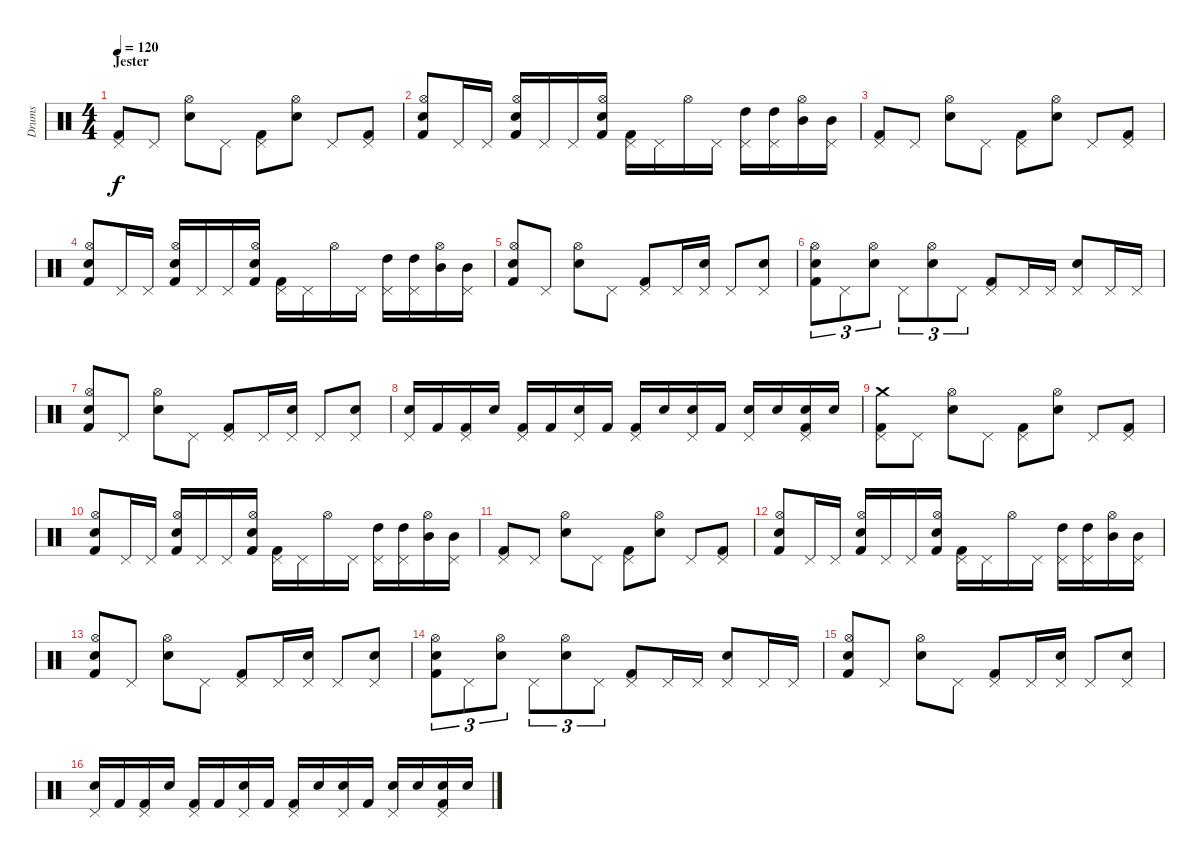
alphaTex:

\track ("Drums" "Drums") {instrument percussion}
\staff {score}
\articulation defaults
\ts (4 4)
\section ("" "Jester")
\tempo 120
\clef neutral
\ks c
("Pedal Hi-Hat (hit)" "Kick (hit) 2").8{dy f} "Pedal Hi-Hat (hit)".8 ("Hi-Hat (open)" "Electric Snare (hit)").8 "Pedal Hi-Hat (hit)".8 ("Pedal Hi-Hat (hit)" "Kick (hit) 2").8 ("Hi-Hat (open)" "Electric Snare (hit)").8 "Pedal Hi-Hat (hit)".8 ("Pedal Hi-Hat (hit)" "Kick (hit) 2").8 |
("Hi-Hat (open)" "Electric Snare (hit)" "Kick (hit) 2").8 "Pedal Hi-Hat (hit)".16 "Pedal Hi-Hat (hit)".16 ("Hi-Hat (open)" "Electric Snare (hit)" "Kick (hit) 2").16 "Pedal Hi-Hat (hit)".16 "Pedal Hi-Hat (hit)".16 ("Hi-Hat (open)" "Electric Snare (hit)" "Kick (hit) 2").16 ("Pedal Hi-Hat (hit)" "Kick (hit) 2").16 "Pedal Hi-Hat (hit)".16 "Hi-Hat (open)".16 "Pedal Hi-Hat (hit)".16 ("Pedal Hi-Hat (hit)" "High Tom (hit)").16 ("Pedal Hi-Hat (hit)" "High Tom (hit)").16 ("Hi-Hat (open)" "Mid Tom (hit)").16 ("Pedal Hi-Hat (hit)" "Mid Tom (hit)").16 |
("Pedal Hi-Hat (hit)" "Kick (hit) 2").8 "Pedal Hi-Hat (hit)".8 ("Hi-Hat (open)" "Electric Snare (hit)").8 "Pedal Hi-Hat (hit)".8 ("Pedal Hi-Hat (hit)" "Kick (hit) 2").8 ("Hi-Hat (open)" "Electric Snare (hit)").8 "Pedal Hi-Hat (hit)".8 ("Pedal Hi-Hat (hit)" "Kick (hit) 2").8 |
("Hi-Hat (open)" "Electric Snare (hit)" "Kick (hit) 2").8 "Pedal Hi-Hat (hit)".16 "Pedal Hi-Hat (hit)".16 ("Hi-Hat (open)" "Electric Snare (hit)" "Kick (hit) 2").16 "Pedal Hi-Hat (hit)".16 "Pedal Hi-Hat (hit)".16 ("Hi-Hat (open)" "Electric Snare (hit)" "Kick (hit) 2").16 ("Pedal Hi-Hat (hit)" "Kick (hit) 2").16 "Pedal Hi-Hat (hit)".16 "Hi-Hat (open)".16 "Pedal Hi-Hat (hit)".16 ("Pedal Hi-Hat (hit)" "High Tom (hit)").16 ("Pedal Hi-Hat (hit)" "High Tom (hit)").16 ("Hi-Hat (open)" "Mid Tom (hit)").16 ("Pedal Hi-Hat (hit)" "Mid Tom (hit)").16 |
("Hi-Hat (open)" "Electric Snare (hit)" "Kick (hit) 2").8 "Pedal Hi-Hat (hit)".8 ("Hi-Hat (open)" "Electric Snare (hit)").8 "Pedal Hi-Hat (hit)".8 ("Pedal Hi-Hat (hit)" "Kick (hit) 2").8 "Pedal Hi-Hat (hit)".16 ("Pedal Hi-Hat (hit)" "Electric Snare (hit)").16 "Pedal Hi-Hat (hit)".8 ("Pedal Hi-Hat (hit)" "Electric Snare (hit)").8 |
("Hi-Hat (open)" "Electric Snare (hit)" "Kick (hit) 2").8{tu (3 2)} "Pedal Hi-Hat (hit)".8{tu (3 2)} ("Hi-Hat (open)" "Electric Snare (hit)").8{tu (3 2)} "Pedal Hi-Hat (hit)".8{tu (3 2)} ("Hi-Hat (open)" "Electric Snare (hit)").8{tu (3 2)} "Pedal Hi-Hat (hit)".8{tu (3 2)} ("Pedal Hi-Hat (hit)" "Kick (hit) 2").8 "Pedal Hi-Hat (hit)".16 "Pedal Hi-Hat (hit)".16 ("Pedal Hi-Hat (hit)" "Electric Snare (hit)").8 "Pedal Hi-Hat (hit)".16 "Pedal Hi-Hat (hit)".16 |
("Hi-Hat (open)" "Electric Snare (hit)" "Kick (hit) 2").8 "Pedal Hi-Hat (hit)".8 ("Hi-Hat (open)" "Electric Snare (hit)").8 "Pedal Hi-Hat (hit)".8 ("Pedal Hi-Hat (hit)" "Kick (hit) 2").8 "Pedal Hi-Hat (hit)".16 ("Pedal Hi-Hat (hit)" "Electric Snare (hit)").16 "Pedal Hi-Hat (hit)".8 ("Pedal Hi-Hat (hit)" "Electric Snare (hit)").8 |
("Pedal Hi-Hat (hit)" "Electric Snare (hit)").16 "Kick (hit) 2".16 ("Pedal Hi-Hat (hit)" "Kick (hit) 2").16 "Electric Snare (hit)".16 ("Pedal Hi-Hat (hit)" "Kick (hit) 2").16 "Kick (hit) 2".16 ("Pedal Hi-Hat (hit)" "Electric Snare (hit)").16 "Kick (hit) 2".16 ("Pedal Hi-Hat (hit)" "Kick (hit) 2").16 "Electric Snare (hit)".16 ("Pedal Hi-Hat (hit)" "Electric Snare (hit)").16 "Kick (hit) 2".16 ("Pedal Hi-Hat (hit)" "Electric Snare (hit)").16 "Electric Snare (hit)".16 ("Pedal Hi-Hat (hit)" "Electric Snare (hit)" "Kick (hit) 2").16 "Electric Snare (hit)".16 |
("Crash medium (hit)" "Pedal Hi-Hat (hit)" "Kick (hit) 2").8 "Pedal Hi-Hat (hit)".8 ("Hi-Hat (open)" "Electric Snare (hit)").8 "Pedal Hi-Hat (hit)".8 ("Pedal Hi-Hat (hit)" "Kick (hit) 2").8 ("Hi-Hat (open)" "Electric Snare (hit)").8 "Pedal Hi-Hat (hit)".8 ("Pedal Hi-Hat (hit)" "Kick (hit) 2").8 |
("Hi-Hat (open)" "Electric Snare (hit)" "Kick (hit) 2").8 "Pedal Hi-Hat (hit)".16 "Pedal Hi-Hat (hit)".16 ("Hi-Hat (open)" "Electric Snare (hit)" "Kick (hit) 2").16 "Pedal Hi-Hat (hit)".16 "Pedal Hi-Hat (hit)".16 ("Hi-Hat (open)" "Electric Snare (hit)" "Kick (hit) 2").16 ("Pedal Hi-Hat (hit)" "Kick (hit) 2").16 "Pedal Hi-Hat (hit)".16 "Hi-Hat (open)".16 "Pedal Hi-Hat (hit)".16 ("Pedal Hi-Hat (hit)" "High Tom (hit)").16 ("Pedal Hi-Hat (hit)" "High Tom (hit)").16 ("Hi-Hat (open)" "Mid Tom (hit)").16 ("Pedal Hi-Hat (hit)" "Mid Tom (hit)").16 |
("Pedal Hi-Hat (hit)" "Kick (hit) 2").8 "Pedal Hi-Hat (hit)".8 ("Hi-Hat (open)" "Electric Snare (hit)").8 "Pedal Hi-Hat (hit)".8 ("Pedal Hi-Hat (hit)" "Kick (hit) 2").8 ("Hi-Hat (open)" "Electric Snare (hit)").8 "Pedal Hi-Hat (hit)".8 ("Pedal Hi-Hat (hit)" "Kick (hit) 2").8 |
("Hi-Hat (open)" "Electric Snare (hit)" "Kick (hit) 2").8 "Pedal Hi-Hat (hit)".16 "Pedal Hi-Hat (hit)".16 ("Hi-Hat (open)" "Electric Snare (hit)" "Kick (hit) 2").16 "Pedal Hi-Hat (hit)".16 "Pedal Hi-Hat (hit)".16 ("Hi-Hat (open)" "Electric Snare (hit)" "Kick (hit) 2").16 ("Pedal Hi-Hat (hit)" "Kick (hit) 2").16 "Pedal Hi-Hat (hit)".16 "Hi-Hat (open)".16 "Pedal Hi-Hat (hit)".16 ("Pedal Hi-Hat (hit)" "High Tom (hit)").16 ("Pedal Hi-Hat (hit)" "High Tom (hit)").16 ("Hi-Hat (open)" "Mid Tom (hit)").16 ("Pedal Hi-Hat (hit)" "Mid Tom (hit)").16 |
("Hi-Hat (open)" "Electric Snare (hit)" "Kick (hit) 2").8 "Pedal Hi-Hat (hit)".8 ("Hi-Hat (open)" "Electric Snare (hit)").8 "Pedal Hi-Hat (hit)".8 ("Pedal Hi-Hat (hit)" "Kick (hit) 2").8 "Pedal Hi-Hat (hit)".16 ("Pedal Hi-Hat (hit)" "Electric Snare (hit)").16 "Pedal Hi-Hat (hit)".8 ("Pedal Hi-Hat (hit)" "Electric Snare (hit)").8 |
("Hi-Hat (open)" "Electric Snare (hit)" "Kick (hit) 2").8{tu (3 2)} "Pedal Hi-Hat (hit)".8{tu (3 2)} ("Hi-Hat (open)" "Electric Snare (hit)").8{tu (3 2)} "Pedal Hi-Hat (hit)".8{tu (3 2)} ("Hi-Hat (open)" "Electric Snare (hit)").8{tu (3 2)} "Pedal Hi-Hat (hit)".8{tu (3 2)} ("Pedal Hi-Hat (hit)" "Kick (hit) 2").8 "Pedal Hi-Hat (hit)".16 "Pedal Hi-Hat (hit)".16 ("Pedal Hi-Hat (hit)" "Electric Snare (hit)").8 "Pedal Hi-Hat (hit)".16 "Pedal Hi-Hat (hit)".16 |
("Hi-Hat (open)" "Electric Snare (hit)" "Kick (hit) 2").8 "Pedal Hi-Hat (hit)".8 ("Hi-Hat (open)" "Electric Snare (hit)").8 "Pedal Hi-Hat (hit)".8 ("Pedal Hi-Hat (hit)" "Kick (hit) 2").8 "Pedal Hi-Hat (hit)".16 ("Pedal Hi-Hat (hit)" "Electric Snare (hit)").16 "Pedal Hi-Hat (hit)".8 ("Pedal Hi-Hat (hit)" "Electric Snare (hit)").8 |
("Pedal Hi-Hat (hit)" "Electric Snare (hit)").16 "Kick (hit) 2".16 ("Pedal Hi-Hat (hit)" "Kick (hit) 2").16 "Electric Snare (hit)".16 ("Pedal Hi-Hat (hit)" "Kick (hit) 2").16 "Kick (hit) 2".16 ("Pedal Hi-Hat (hit)" "Electric Snare (hit)").16 "Kick (hit) 2".16 ("Pedal Hi-Hat (hit)" "Kick (hit) 2").16 "Electric Snare (hit)".16 ("Pedal Hi-Hat (hit)" "Electric Snare (hit)").16 "Kick (hit) 2".16 ("Pedal Hi-Hat (hit)" "Electric Snare (hit)").16 "Electric Snare (hit)".16 ("Pedal Hi-Hat (hit)" "Electric Snare (hit)" "Kick (hit) 2").16 "Electric Snare (hit)".16
